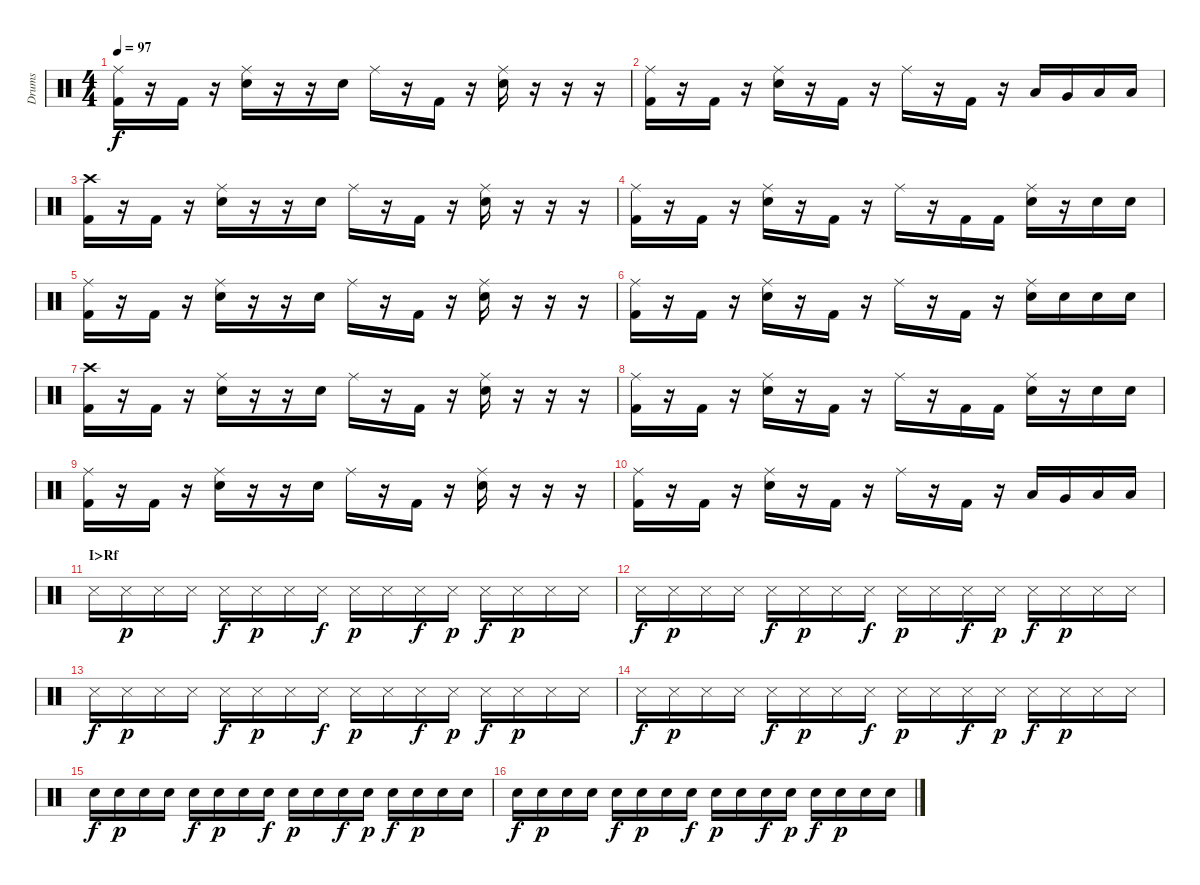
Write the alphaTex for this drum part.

\track ("Drums" "Drums") {instrument percussion}
\staff {score}
\articulation defaults
\ts (4 4)
\tempo 97
\clef neutral
\ks c
("Kick (hit) 2" "Ride (middle)").16{dy f} r.16 "Kick (hit) 2".16 r.16 ("Electric Snare (hit)" "Ride (middle)").16 r.16 r.16 "Electric Snare (hit)".16 "Ride (middle)".16 r.16 "Kick (hit) 2".16 r.16 ("Electric Snare (hit)" "Ride (middle)").16 r.16 r.16 r.16 |
("Kick (hit) 2" "Ride (middle)").16 r.16 "Kick (hit) 2".16 r.16 ("Electric Snare (hit)" "Ride (middle)").16 r.16 "Kick (hit) 2".16 r.16 "Ride (middle)".16 r.16 "Kick (hit) 2".16 r.16 "Low Tom (hit)".16 "Very Low Tom (hit)".16 "Low Floor Tom (hit)".16 "Low Floor Tom (hit)".16 |
("Kick (hit) 2" "Crash high (hit)").16 r.16 "Kick (hit) 2".16 r.16 ("Electric Snare (hit)" "Ride (middle)").16 r.16 r.16 "Electric Snare (hit)".16 "Ride (middle)".16 r.16 "Kick (hit) 2".16 r.16 ("Electric Snare (hit)" "Ride (middle)").16 r.16 r.16 r.16 |
("Kick (hit) 2" "Ride (middle)").16 r.16 "Kick (hit) 2".16 r.16 ("Electric Snare (hit)" "Ride (middle)").16 r.16 "Kick (hit) 2".16 r.16 "Ride (middle)".16 r.16 "Kick (hit) 2".16 "Kick (hit) 2".16 ("Electric Snare (hit)" "Ride (middle)").16 r.16 "Electric Snare (hit)".16 "Electric Snare (hit)".16 |
("Kick (hit) 2" "Ride (middle)").16 r.16 "Kick (hit) 2".16 r.16 ("Electric Snare (hit)" "Ride (middle)").16 r.16 r.16 "Electric Snare (hit)".16 "Ride (middle)".16 r.16 "Kick (hit) 2".16 r.16 ("Electric Snare (hit)" "Ride (middle)").16 r.16 r.16 r.16 |
("Kick (hit) 2" "Ride (middle)").16 r.16 "Kick (hit) 2".16 r.16 ("Electric Snare (hit)" "Ride (middle)").16 r.16 "Kick (hit) 2".16 r.16 "Ride (middle)".16 r.16 "Kick (hit) 2".16 r.16 ("Electric Snare (hit)" "Ride (middle)").16 "Electric Snare (hit)".16 "Electric Snare (hit)".16 "Electric Snare (hit)".16 |
("Kick (hit) 2" "Crash high (hit)").16 r.16 "Kick (hit) 2".16 r.16 ("Electric Snare (hit)" "Ride (middle)").16 r.16 r.16 "Electric Snare (hit)".16 "Ride (middle)".16 r.16 "Kick (hit) 2".16 r.16 ("Electric Snare (hit)" "Ride (middle)").16 r.16 r.16 r.16 |
("Kick (hit) 2" "Ride (middle)").16 r.16 "Kick (hit) 2".16 r.16 ("Electric Snare (hit)" "Ride (middle)").16 r.16 "Kick (hit) 2".16 r.16 "Ride (middle)".16 r.16 "Kick (hit) 2".16 "Kick (hit) 2".16 ("Electric Snare (hit)" "Ride (middle)").16 r.16 "Electric Snare (hit)".16 "Electric Snare (hit)".16 |
("Kick (hit) 2" "Ride (middle)").16 r.16 "Kick (hit) 2".16 r.16 ("Electric Snare (hit)" "Ride (middle)").16 r.16 r.16 "Electric Snare (hit)".16 "Ride (middle)".16 r.16 "Kick (hit) 2".16 r.16 ("Electric Snare (hit)" "Ride (middle)").16 r.16 r.16 r.16 |
("Kick (hit) 2" "Ride (middle)").16 r.16 "Kick (hit) 2".16 r.16 ("Electric Snare (hit)" "Ride (middle)").16 r.16 "Kick (hit) 2".16 r.16 "Ride (middle)".16 r.16 "Kick (hit) 2".16 r.16 "Low Tom (hit)".16 "Very Low Tom (hit)".16 "Low Floor Tom (hit)".16 "Low Floor Tom (hit)".16 |
\section ("" "I>Rf")
"Snare (side stick) 3".16 "Snare (side stick) 3".16{dy p} "Snare (side stick) 3".16 "Snare (side stick) 3".16 "Snare (side stick) 3".16{dy f} "Snare (side stick) 3".16{dy p} "Snare (side stick) 3".16 "Snare (side stick) 3".16{dy f} "Snare (side stick) 3".16{dy p} "Snare (side stick) 3".16 "Snare (side stick) 3".16{dy f} "Snare (side stick) 3".16{dy p} "Snare (side stick) 3".16{dy f} "Snare (side stick) 3".16{dy p} "Snare (side stick) 3".16 "Snare (side stick) 3".16 |
"Snare (side stick) 3".16{dy f} "Snare (side stick) 3".16{dy p} "Snare (side stick) 3".16 "Snare (side stick) 3".16 "Snare (side stick) 3".16{dy f} "Snare (side stick) 3".16{dy p} "Snare (side stick) 3".16 "Snare (side stick) 3".16{dy f} "Snare (side stick) 3".16{dy p} "Snare (side stick) 3".16 "Snare (side stick) 3".16{dy f} "Snare (side stick) 3".16{dy p} "Snare (side stick) 3".16{dy f} "Snare (side stick) 3".16{dy p} "Snare (side stick) 3".16 "Snare (side stick) 3".16 |
"Snare (side stick) 3".16{dy f} "Snare (side stick) 3".16{dy p} "Snare (side stick) 3".16 "Snare (side stick) 3".16 "Snare (side stick) 3".16{dy f} "Snare (side stick) 3".16{dy p} "Snare (side stick) 3".16 "Snare (side stick) 3".16{dy f} "Snare (side stick) 3".16{dy p} "Snare (side stick) 3".16 "Snare (side stick) 3".16{dy f} "Snare (side stick) 3".16{dy p} "Snare (side stick) 3".16{dy f} "Snare (side stick) 3".16{dy p} "Snare (side stick) 3".16 "Snare (side stick) 3".16 |
"Snare (side stick) 3".16{dy f} "Snare (side stick) 3".16{dy p} "Snare (side stick) 3".16 "Snare (side stick) 3".16 "Snare (side stick) 3".16{dy f} "Snare (side stick) 3".16{dy p} "Snare (side stick) 3".16 "Snare (side stick) 3".16{dy f} "Snare (side stick) 3".16{dy p} "Snare (side stick) 3".16 "Snare (side stick) 3".16{dy f} "Snare (side stick) 3".16{dy p} "Snare (side stick) 3".16{dy f} "Snare (side stick) 3".16{dy p} "Snare (side stick) 3".16 "Snare (side stick) 3".16 |
"Electric Snare (hit)".16{dy f} "Electric Snare (hit)".16{dy p} "Electric Snare (hit)".16 "Electric Snare (hit)".16 "Electric Snare (hit)".16{dy f} "Electric Snare (hit)".16{dy p} "Electric Snare (hit)".16 "Electric Snare (hit)".16{dy f} "Electric Snare (hit)".16{dy p} "Electric Snare (hit)".16 "Electric Snare (hit)".16{dy f} "Electric Snare (hit)".16{dy p} "Electric Snare (hit)".16{dy f} "Electric Snare (hit)".16{dy p} "Electric Snare (hit)".16 "Electric Snare (hit)".16 |
"Electric Snare (hit)".16{dy f} "Electric Snare (hit)".16{dy p} "Electric Snare (hit)".16 "Electric Snare (hit)".16 "Electric Snare (hit)".16{dy f} "Electric Snare (hit)".16{dy p} "Electric Snare (hit)".16 "Electric Snare (hit)".16{dy f} "Electric Snare (hit)".16{dy p} "Electric Snare (hit)".16 "Electric Snare (hit)".16{dy f} "Electric Snare (hit)".16{dy p} "Electric Snare (hit)".16{dy f} "Electric Snare (hit)".16{dy p} "Electric Snare (hit)".16 "Electric Snare (hit)".16
